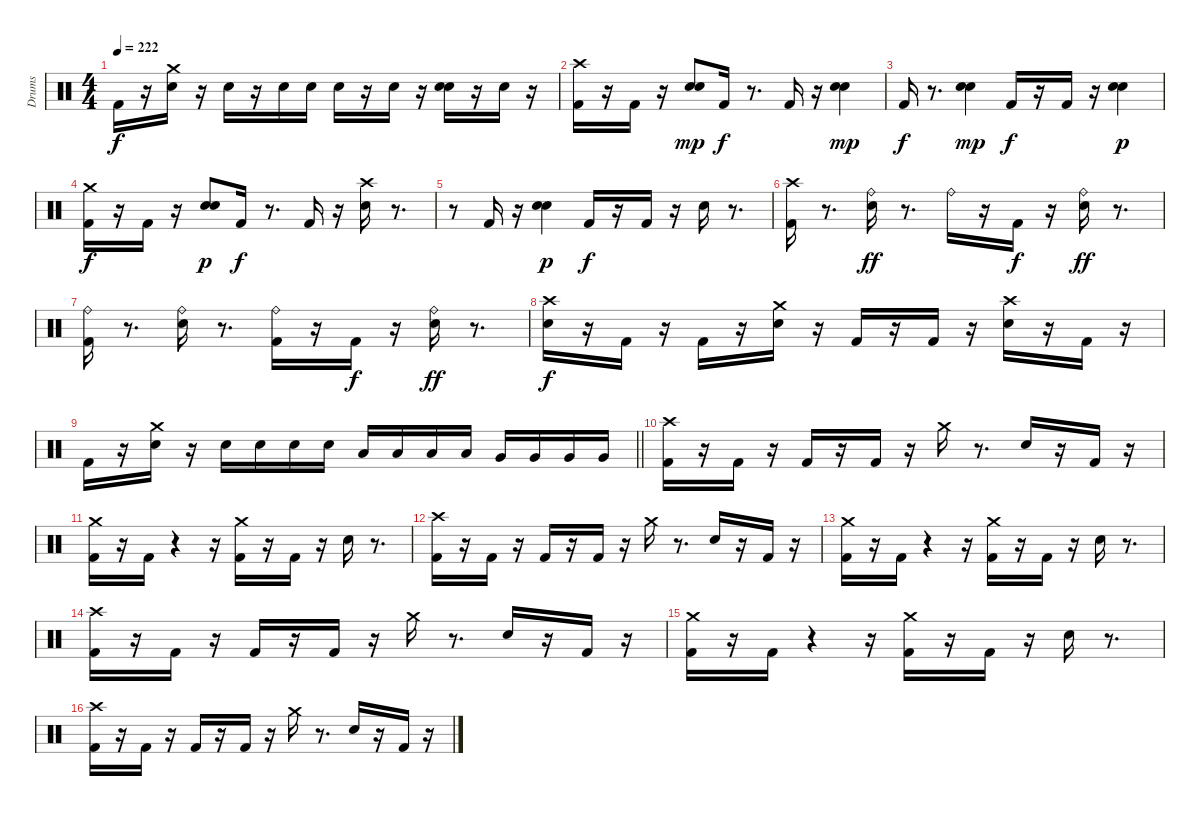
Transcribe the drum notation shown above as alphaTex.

\track ("Drums" "Drums") {instrument percussion}
\staff {score}
\articulation defaults
\ts (4 4)
\tempo 222
\clef neutral
\ks c "Kick (hit) 2".16{dy f}
r.16 ("Snare (hit) 2" "Crash medium (hit)").16 r.16 "Snare (hit) 2".16 r.16 "Snare (hit) 2".16 "Snare (hit) 2".16 "Snare (hit) 2".16 r.16 "Snare (hit) 2".16 r.16 ("Snare (hit) 2" "Snare (hit) 2").16 r.16 "Snare (hit) 2".16 r.16 |
("Kick (hit) 2" "Crash high (hit)").16 r.16 "Kick (hit) 2".16 r.16 ("Snare (hit) 2" "Snare (hit) 2").8{dy mp} "Kick (hit) 2".16{dy f} r.8{d} "Kick (hit) 2".16 r.16 ("Snare (hit) 2" "Snare (hit) 2").4{dy mp} |
"Kick (hit) 2".16{dy f} r.8{d} ("Snare (hit) 2" "Snare (hit) 2").4{dy mp} "Kick (hit) 2".16{dy f} r.16 "Kick (hit) 2".16 r.16 ("Snare (hit) 2" "Snare (hit) 2").4{dy p} |
("Kick (hit) 2" "Crash medium (hit)").16{dy f} r.16 "Kick (hit) 2".16 r.16 ("Snare (hit) 2" "Snare (hit) 2").8{dy p} "Kick (hit) 2".16{dy f} r.8{d} "Kick (hit) 2".16 r.16 ("Snare (hit) 2" "Crash high (hit)").16 r.8{d} |
r.8 "Kick (hit) 2".16 r.16 ("Snare (hit) 2" "Snare (hit) 2").4{dy p} "Kick (hit) 2".16{dy f} r.16 "Kick (hit) 2".16 r.16 "Snare (hit) 2".16 r.8{d} |
("Kick (hit) 2" "Crash high (hit)").16 r.8{d} ("Snare (hit) 2" "Ride (bell)").16{dy ff} r.8{d} "Ride (bell)".16 r.16 "Kick (hit) 2".16{dy f} r.16 ("Snare (hit) 2" "Ride (bell)").16{dy ff} r.8{d} |
("Kick (hit) 2" "Ride (bell)").16 r.8{d} ("Snare (hit) 2" "Ride (bell)").16 r.8{d} ("Kick (hit) 2" "Ride (bell)").16 r.16 "Kick (hit) 2".16{dy f} r.16 ("Snare (hit) 2" "Ride (bell)").16{dy ff} r.8{d} |
("Snare (hit) 2" "Crash high (hit)").16{dy f} r.16 "Kick (hit) 2".16 r.16 "Kick (hit) 2".16 r.16 ("Snare (hit) 2" "Crash medium (hit)").16 r.16 "Kick (hit) 2".16 r.16 "Kick (hit) 2".16 r.16 ("Snare (hit) 2" "Crash high (hit)").16 r.16 "Kick (hit) 2".16 r.16 |
\barLineRight lightlight "Kick (hit) 2".16
r.16 ("Snare (hit) 2" "Crash medium (hit)").16 r.16 "Snare (hit) 2".16 "Snare (hit) 2".16 "Snare (hit) 2".16 "Snare (hit) 2".16 "Low Tom (hit)".16 "Low Tom (hit)".16 "Low Tom (hit)".16 "Low Tom (hit)".16 "Very Low Tom (hit)".16 "Very Low Tom (hit)".16 "Very Low Tom (hit)".16 "Very Low Tom (hit)".16 |
\section ("" " ")
("Kick (hit) 2" "Crash high (hit)").16 r.16 "Kick (hit) 2".16 r.16 "Kick (hit) 2".16 r.16 "Kick (hit) 2".16 r.16 "Crash medium (hit)".16 r.8{d} "Snare (hit) 2".16 r.16 "Kick (hit) 2".16 r.16 |
("Kick (hit) 2" "Crash medium (hit)").16 r.16 "Kick (hit) 2".16 r.4 r.16 ("Kick (hit) 2" "Crash medium (hit)").16 r.16 "Kick (hit) 2".16 r.16 "Snare (hit) 2".16 r.8{d} |
("Kick (hit) 2" "Crash high (hit)").16 r.16 "Kick (hit) 2".16 r.16 "Kick (hit) 2".16 r.16 "Kick (hit) 2".16 r.16 "Crash medium (hit)".16 r.8{d} "Snare (hit) 2".16 r.16 "Kick (hit) 2".16 r.16 |
("Kick (hit) 2" "Crash medium (hit)").16 r.16 "Kick (hit) 2".16 r.4 r.16 ("Kick (hit) 2" "Crash medium (hit)").16 r.16 "Kick (hit) 2".16 r.16 "Snare (hit) 2".16 r.8{d} |
("Kick (hit) 2" "Crash high (hit)").16 r.16 "Kick (hit) 2".16 r.16 "Kick (hit) 2".16 r.16 "Kick (hit) 2".16 r.16 "Crash medium (hit)".16 r.8{d} "Snare (hit) 2".16 r.16 "Kick (hit) 2".16 r.16 |
("Kick (hit) 2" "Crash medium (hit)").16 r.16 "Kick (hit) 2".16 r.4 r.16 ("Kick (hit) 2" "Crash medium (hit)").16 r.16 "Kick (hit) 2".16 r.16 "Snare (hit) 2".16 r.8{d} |
("Kick (hit) 2" "Crash high (hit)").16 r.16 "Kick (hit) 2".16 r.16 "Kick (hit) 2".16 r.16 "Kick (hit) 2".16 r.16 "Crash medium (hit)".16 r.8{d} "Snare (hit) 2".16 r.16 "Kick (hit) 2".16 r.16
